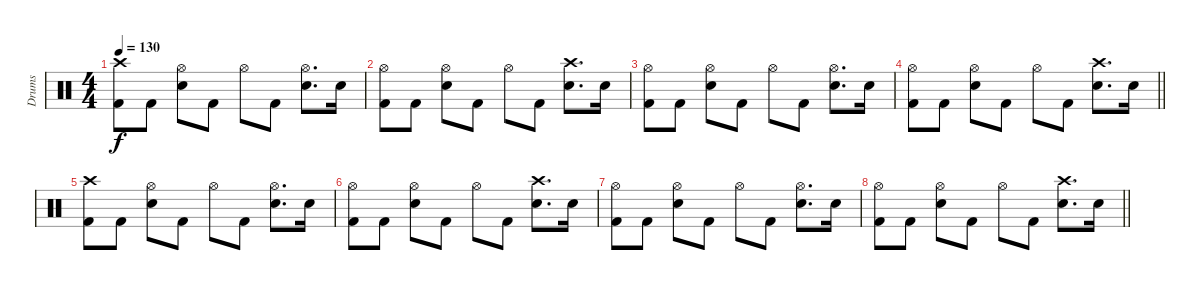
\track ("Drums" "Drums") {instrument percussion}
\staff {score}
\articulation defaults
\ts (4 4)
\tempo 130
\clef neutral
\ks c
("Crash high (hit)" "Kick (hit) 2").8{dy f} "Kick (hit) 2".8 ("Hi-Hat (open)" "Electric Snare (hit)").8 "Kick (hit) 2".8 "Hi-Hat (open)".8 "Kick (hit) 2".8 ("Hi-Hat (open)" "Electric Snare (hit)").8{d} "Electric Snare (hit)".16 |
("Hi-Hat (open)" "Kick (hit) 2").8 "Kick (hit) 2".8 ("Hi-Hat (open)" "Electric Snare (hit)").8 "Kick (hit) 2".8 "Hi-Hat (open)".8 "Kick (hit) 2".8 ("Crash high (hit)" "Electric Snare (hit)").8{d} "Electric Snare (hit)".16 |
("Hi-Hat (open)" "Kick (hit) 2").8 "Kick (hit) 2".8 ("Hi-Hat (open)" "Electric Snare (hit)").8 "Kick (hit) 2".8 "Hi-Hat (open)".8 "Kick (hit) 2".8 ("Hi-Hat (open)" "Electric Snare (hit)").8{d} "Electric Snare (hit)".16 |
\barLineRight lightlight
("Hi-Hat (open)" "Kick (hit) 2").8 "Kick (hit) 2".8 ("Hi-Hat (open)" "Electric Snare (hit)").8 "Kick (hit) 2".8 "Hi-Hat (open)".8 "Kick (hit) 2".8 ("Crash high (hit)" "Electric Snare (hit)").8{d} "Electric Snare (hit)".16 |
("Crash high (hit)" "Kick (hit) 2").8 "Kick (hit) 2".8 ("Hi-Hat (open)" "Electric Snare (hit)").8 "Kick (hit) 2".8 "Hi-Hat (open)".8 "Kick (hit) 2".8 ("Hi-Hat (open)" "Electric Snare (hit)").8{d} "Electric Snare (hit)".16 |
("Hi-Hat (open)" "Kick (hit) 2").8 "Kick (hit) 2".8 ("Hi-Hat (open)" "Electric Snare (hit)").8 "Kick (hit) 2".8 "Hi-Hat (open)".8 "Kick (hit) 2".8 ("Crash high (hit)" "Electric Snare (hit)").8{d} "Electric Snare (hit)".16 |
("Hi-Hat (open)" "Kick (hit) 2").8 "Kick (hit) 2".8 ("Hi-Hat (open)" "Electric Snare (hit)").8 "Kick (hit) 2".8 "Hi-Hat (open)".8 "Kick (hit) 2".8 ("Hi-Hat (open)" "Electric Snare (hit)").8{d} "Electric Snare (hit)".16 |
\barLineRight lightlight
("Hi-Hat (open)" "Kick (hit) 2").8 "Kick (hit) 2".8 ("Hi-Hat (open)" "Electric Snare (hit)").8 "Kick (hit) 2".8 "Hi-Hat (open)".8 "Kick (hit) 2".8 ("Crash high (hit)" "Electric Snare (hit)").8{d} "Electric Snare (hit)".16
